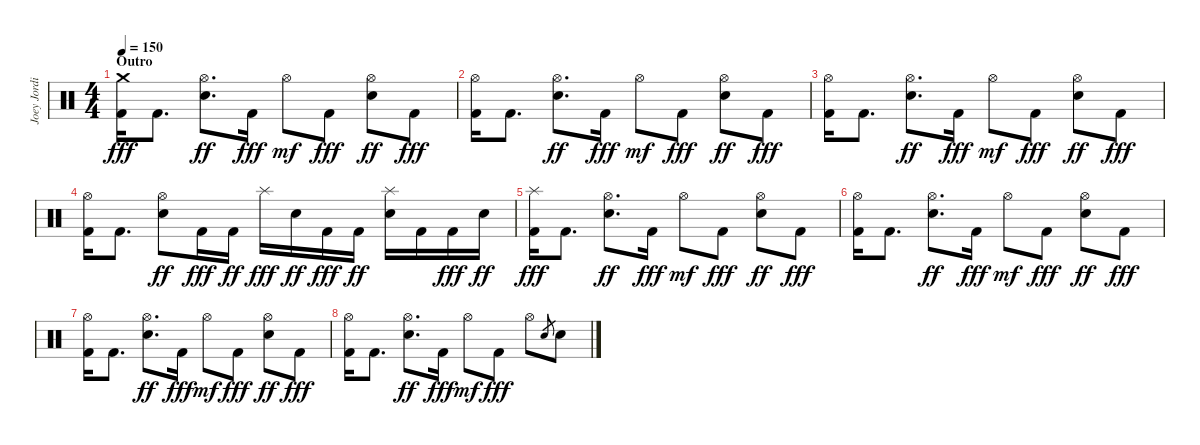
\track ("Joey Jordison" "Joey Jordi") {instrument percussion}
\staff {score}
\articulation defaults
\ts (4 4)
\section ("" "Outro")
\tempo 150
\clef neutral
\ks c
("Crash medium (hit)" "Kick (hit) 2").16{dy fff} "Kick (hit) 2".8{d} ("Hi-Hat (open)" "Electric Snare (hit)").8{d dy ff} "Kick (hit) 2".16{dy fff} "Hi-Hat (open)".8{dy mf} "Kick (hit) 2".8{dy fff} ("Hi-Hat (open)" "Electric Snare (hit)").8{dy ff} "Kick (hit) 2".8{dy fff} |
("Hi-Hat (open)" "Kick (hit) 2").16 "Kick (hit) 2".8{d} ("Hi-Hat (open)" "Electric Snare (hit)").8{d dy ff} "Kick (hit) 2".16{dy fff} "Hi-Hat (open)".8{dy mf} "Kick (hit) 2".8{dy fff} ("Hi-Hat (open)" "Electric Snare (hit)").8{dy ff} "Kick (hit) 2".8{dy fff} |
("Hi-Hat (open)" "Kick (hit) 2").16 "Kick (hit) 2".8{d} ("Hi-Hat (open)" "Electric Snare (hit)").8{d dy ff} "Kick (hit) 2".16{dy fff} "Hi-Hat (open)".8{dy mf} "Kick (hit) 2".8{dy fff} ("Hi-Hat (open)" "Electric Snare (hit)").8{dy ff} "Kick (hit) 2".8{dy fff} |
("Hi-Hat (open)" "Kick (hit) 2").16 "Kick (hit) 2".8{d} ("Hi-Hat (open)" "Electric Snare (hit)").8{dy ff} "Kick (hit) 2".16{dy fff} "Kick (hit) 2".16{dy ff} "Splash (hit)".16{dy fff} "Electric Snare (hit)".16{dy ff} "Kick (hit) 2".16{dy fff} "Kick (hit) 2".16{dy ff} ("Splash (hit)" "Electric Snare (hit)").16 "Kick (hit) 2".16 "Kick (hit) 2".16{dy fff} "Electric Snare (hit)".16{dy ff} |
("Splash (hit)" "Kick (hit) 2").16{dy fff} "Kick (hit) 2".8{d} ("Hi-Hat (open)" "Electric Snare (hit)").8{d dy ff} "Kick (hit) 2".16{dy fff} "Hi-Hat (open)".8{dy mf} "Kick (hit) 2".8{dy fff} ("Hi-Hat (open)" "Electric Snare (hit)").8{dy ff} "Kick (hit) 2".8{dy fff} |
("Hi-Hat (open)" "Kick (hit) 2").16 "Kick (hit) 2".8{d} ("Hi-Hat (open)" "Electric Snare (hit)").8{d dy ff} "Kick (hit) 2".16{dy fff} "Hi-Hat (open)".8{dy mf} "Kick (hit) 2".8{dy fff} ("Hi-Hat (open)" "Electric Snare (hit)").8{dy ff} "Kick (hit) 2".8{dy fff} |
("Hi-Hat (open)" "Kick (hit) 2").16 "Kick (hit) 2".8{d} ("Hi-Hat (open)" "Electric Snare (hit)").8{d dy ff} "Kick (hit) 2".16{dy fff} "Hi-Hat (open)".8{dy mf} "Kick (hit) 2".8{dy fff} ("Hi-Hat (open)" "Electric Snare (hit)").8{dy ff} "Kick (hit) 2".8{dy fff} |
("Hi-Hat (open)" "Kick (hit) 2").16 "Kick (hit) 2".8{d} ("Hi-Hat (open)" "Electric Snare (hit)").8{d dy ff} "Kick (hit) 2".16{dy fff} "Hi-Hat (open)".8{dy mf} "Kick (hit) 2".8{dy fff} "Hi-Hat (open)".8 "Electric Snare (hit)".8{gr} "Electric Snare (hit)".8
